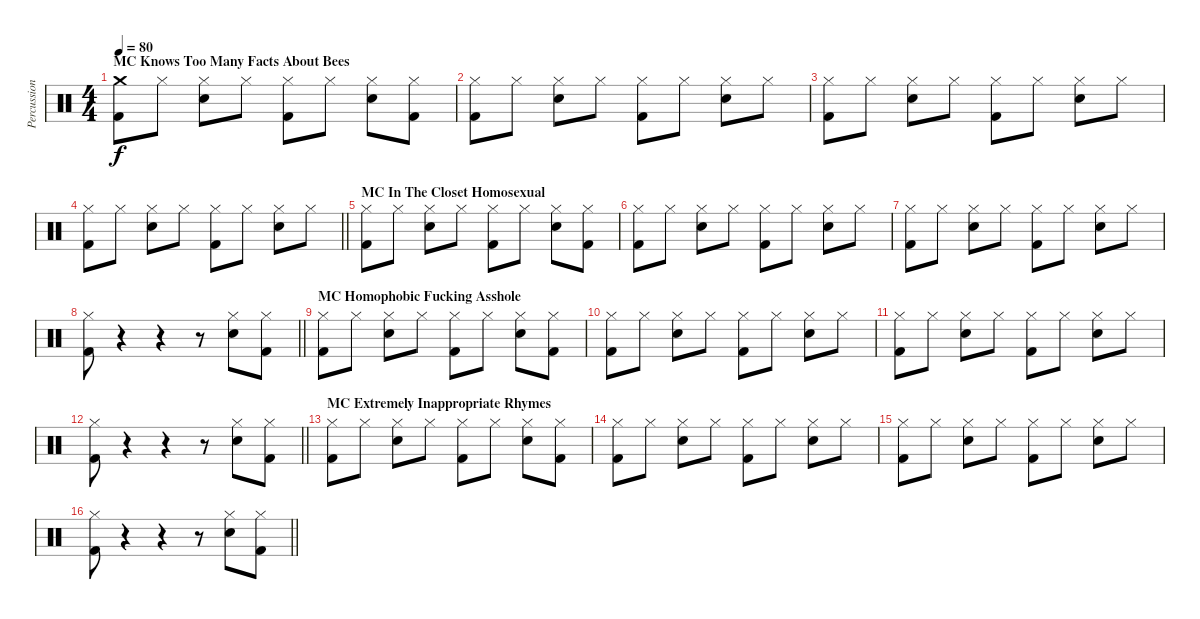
\track ("Percussion" "Percussion") {instrument percussion}
\staff {score}
\articulation defaults
\ts (4 4)
\section ("" "MC Knows Too Many Facts About Bees")
\tempo 80
\clef neutral
\ks c
("Crash medium (hit)" "Kick (hit) 2").8{dy f} "Hi-Hat (closed)".8 ("Hi-Hat (closed)" "Snare (hit) 2").8 "Hi-Hat (closed)".8 ("Hi-Hat (closed)" "Kick (hit) 2").8 "Hi-Hat (closed)".8 ("Hi-Hat (closed)" "Snare (hit) 2").8 ("Hi-Hat (closed)" "Kick (hit) 2").8 |
("Hi-Hat (closed)" "Kick (hit) 2").8 "Hi-Hat (closed)".8 ("Hi-Hat (closed)" "Snare (hit) 2").8 "Hi-Hat (closed)".8 ("Hi-Hat (closed)" "Kick (hit) 2").8 "Hi-Hat (closed)".8 ("Hi-Hat (closed)" "Snare (hit) 2").8 "Hi-Hat (closed)".8 |
("Hi-Hat (closed)" "Kick (hit) 2").8 "Hi-Hat (closed)".8 ("Hi-Hat (closed)" "Snare (hit) 2").8 "Hi-Hat (closed)".8 ("Hi-Hat (closed)" "Kick (hit) 2").8 "Hi-Hat (closed)".8 ("Hi-Hat (closed)" "Snare (hit) 2").8 "Hi-Hat (closed)".8 |
\barLineRight lightlight
("Hi-Hat (closed)" "Kick (hit) 2").8 "Hi-Hat (closed)".8 ("Hi-Hat (closed)" "Snare (hit) 2").8 "Hi-Hat (closed)".8 ("Hi-Hat (closed)" "Kick (hit) 2").8 "Hi-Hat (closed)".8 ("Hi-Hat (closed)" "Snare (hit) 2").8 "Hi-Hat (closed)".8 |
\section ("" "MC In The Closet Homosexual")
("Hi-Hat (closed)" "Kick (hit) 2").8 "Hi-Hat (closed)".8 ("Hi-Hat (closed)" "Snare (hit) 2").8 "Hi-Hat (closed)".8 ("Hi-Hat (closed)" "Kick (hit) 2").8 "Hi-Hat (closed)".8 ("Hi-Hat (closed)" "Snare (hit) 2").8 ("Hi-Hat (closed)" "Kick (hit) 2").8 |
("Hi-Hat (closed)" "Kick (hit) 2").8 "Hi-Hat (closed)".8 ("Hi-Hat (closed)" "Snare (hit) 2").8 "Hi-Hat (closed)".8 ("Hi-Hat (closed)" "Kick (hit) 2").8 "Hi-Hat (closed)".8 ("Hi-Hat (closed)" "Snare (hit) 2").8 "Hi-Hat (closed)".8 |
("Hi-Hat (closed)" "Kick (hit) 2").8 "Hi-Hat (closed)".8 ("Hi-Hat (closed)" "Snare (hit) 2").8 "Hi-Hat (closed)".8 ("Hi-Hat (closed)" "Kick (hit) 2").8 "Hi-Hat (closed)".8 ("Hi-Hat (closed)" "Snare (hit) 2").8 "Hi-Hat (closed)".8 |
\barLineRight lightlight
("Hi-Hat (closed)" "Kick (hit) 2").8 r.4 r.4 r.8 ("Hi-Hat (closed)" "Snare (hit) 2").8 ("Hi-Hat (closed)" "Kick (hit) 2").8 |
\section ("" "MC Homophobic Fucking Asshole")
("Hi-Hat (closed)" "Kick (hit) 2").8 "Hi-Hat (closed)".8 ("Hi-Hat (closed)" "Snare (hit) 2").8 "Hi-Hat (closed)".8 ("Hi-Hat (closed)" "Kick (hit) 2").8 "Hi-Hat (closed)".8 ("Hi-Hat (closed)" "Snare (hit) 2").8 ("Hi-Hat (closed)" "Kick (hit) 2").8 |
("Hi-Hat (closed)" "Kick (hit) 2").8 "Hi-Hat (closed)".8 ("Hi-Hat (closed)" "Snare (hit) 2").8 "Hi-Hat (closed)".8 ("Hi-Hat (closed)" "Kick (hit) 2").8 "Hi-Hat (closed)".8 ("Hi-Hat (closed)" "Snare (hit) 2").8 "Hi-Hat (closed)".8 |
("Hi-Hat (closed)" "Kick (hit) 2").8 "Hi-Hat (closed)".8 ("Hi-Hat (closed)" "Snare (hit) 2").8 "Hi-Hat (closed)".8 ("Hi-Hat (closed)" "Kick (hit) 2").8 "Hi-Hat (closed)".8 ("Hi-Hat (closed)" "Snare (hit) 2").8 "Hi-Hat (closed)".8 |
\barLineRight lightlight
("Hi-Hat (closed)" "Kick (hit) 2").8 r.4 r.4 r.8 ("Hi-Hat (closed)" "Snare (hit) 2").8 ("Hi-Hat (closed)" "Kick (hit) 2").8 |
\section ("" "MC Extremely Inappropriate Rhymes")
("Hi-Hat (closed)" "Kick (hit) 2").8 "Hi-Hat (closed)".8 ("Hi-Hat (closed)" "Snare (hit) 2").8 "Hi-Hat (closed)".8 ("Hi-Hat (closed)" "Kick (hit) 2").8 "Hi-Hat (closed)".8 ("Hi-Hat (closed)" "Snare (hit) 2").8 ("Hi-Hat (closed)" "Kick (hit) 2").8 |
("Hi-Hat (closed)" "Kick (hit) 2").8 "Hi-Hat (closed)".8 ("Hi-Hat (closed)" "Snare (hit) 2").8 "Hi-Hat (closed)".8 ("Hi-Hat (closed)" "Kick (hit) 2").8 "Hi-Hat (closed)".8 ("Hi-Hat (closed)" "Snare (hit) 2").8 "Hi-Hat (closed)".8 |
("Hi-Hat (closed)" "Kick (hit) 2").8 "Hi-Hat (closed)".8 ("Hi-Hat (closed)" "Snare (hit) 2").8 "Hi-Hat (closed)".8 ("Hi-Hat (closed)" "Kick (hit) 2").8 "Hi-Hat (closed)".8 ("Hi-Hat (closed)" "Snare (hit) 2").8 "Hi-Hat (closed)".8 |
\barLineRight lightlight
("Hi-Hat (closed)" "Kick (hit) 2").8 r.4 r.4 r.8 ("Hi-Hat (closed)" "Snare (hit) 2").8 ("Hi-Hat (closed)" "Kick (hit) 2").8
